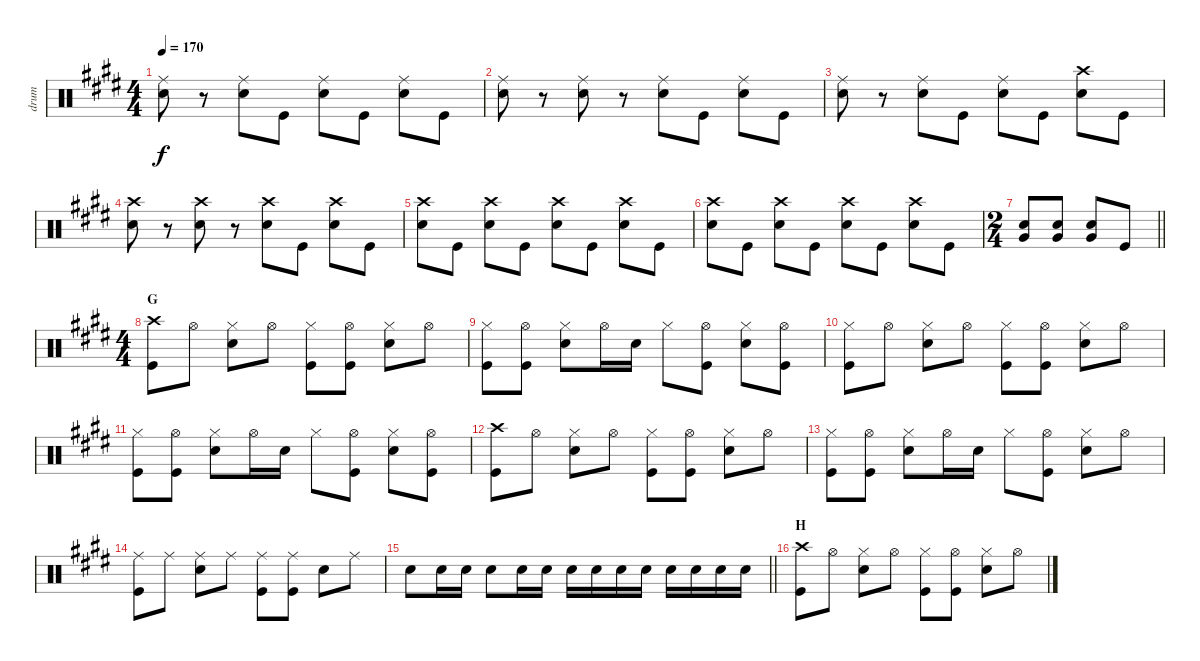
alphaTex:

\track ("drum" "drum") {instrument percussion}
\staff {score}
\articulation defaults
\ts (4 4)
\tempo 170
\clef neutral
\ks e
("Ride (middle)" "Snare (hit) 2").8{dy f} r.8 ("Ride (middle)" "Snare (hit) 2").8 "Kick (hit)".8 ("Ride (middle)" "Snare (hit) 2").8 "Kick (hit)".8 ("Ride (middle)" "Snare (hit) 2").8 "Kick (hit)".8 |
("Ride (middle)" "Snare (hit) 2").8 r.8 ("Ride (middle)" "Snare (hit) 2").8 r.8 ("Ride (middle)" "Snare (hit) 2").8 "Kick (hit)".8 ("Ride (middle)" "Snare (hit) 2").8 "Kick (hit)".8 |
("Ride (middle)" "Snare (hit) 2").8 r.8 ("Ride (middle)" "Snare (hit) 2").8 "Kick (hit)".8 ("Ride (middle)" "Snare (hit) 2").8 "Kick (hit)".8 ("Crash high (hit)" "Snare (hit) 2").8 "Kick (hit)".8 |
("Crash high (hit)" "Snare (hit) 2").8 r.8 ("Crash high (hit)" "Snare (hit) 2").8 r.8 ("Crash high (hit)" "Snare (hit) 2").8 "Kick (hit)".8 ("Crash high (hit)" "Snare (hit) 2").8 "Kick (hit)".8 |
("Crash high (hit)" "Snare (hit) 2").8 "Kick (hit)".8 ("Crash high (hit)" "Snare (hit) 2").8 "Kick (hit)".8 ("Crash high (hit)" "Snare (hit) 2").8 "Kick (hit)".8 ("Crash high (hit)" "Snare (hit) 2").8 "Kick (hit)".8 |
("Crash high (hit)" "Snare (hit) 2").8 "Kick (hit)".8 ("Crash high (hit)" "Snare (hit) 2").8 "Kick (hit)".8 ("Crash high (hit)" "Snare (hit) 2").8 "Kick (hit)".8 ("Crash high (hit)" "Snare (hit) 2").8 "Kick (hit)".8 |
\ts (2 4)
\barLineRight lightlight
("Snare (hit) 2" "Very Low Tom (hit)").8 ("Snare (hit) 2" "Very Low Tom (hit)").8 ("Snare (hit) 2" "Very Low Tom (hit)").8 "Kick (hit)".8 |
\ts (4 4)
\section ("" "G")
("Crash high (hit)" "Kick (hit)").8 "Hi-Hat (open)".8 ("Hi-Hat (closed)" "Snare (hit) 2").8 "Hi-Hat (open)".8 ("Hi-Hat (closed)" "Kick (hit)").8 ("Hi-Hat (open)" "Kick (hit)").8 ("Hi-Hat (closed)" "Snare (hit) 2").8 "Hi-Hat (open)".8 |
("Hi-Hat (closed)" "Kick (hit)").8 ("Hi-Hat (open)" "Kick (hit)").8 ("Hi-Hat (closed)" "Snare (hit) 2").8 "Hi-Hat (open)".16 "Snare (hit) 2".16 "Hi-Hat (closed)".8 ("Hi-Hat (open)" "Kick (hit)").8 ("Hi-Hat (closed)" "Snare (hit) 2").8 ("Hi-Hat (open)" "Kick (hit)").8 |
("Hi-Hat (closed)" "Kick (hit)").8 "Hi-Hat (open)".8 ("Hi-Hat (closed)" "Snare (hit) 2").8 "Hi-Hat (open)".8 ("Hi-Hat (closed)" "Kick (hit)").8 ("Hi-Hat (open)" "Kick (hit)").8 ("Hi-Hat (closed)" "Snare (hit) 2").8 "Hi-Hat (open)".8 |
("Hi-Hat (closed)" "Kick (hit)").8 ("Hi-Hat (open)" "Kick (hit)").8 ("Hi-Hat (closed)" "Snare (hit) 2").8 "Hi-Hat (open)".16 "Snare (hit) 2".16 "Hi-Hat (closed)".8 ("Hi-Hat (open)" "Kick (hit)").8 ("Hi-Hat (closed)" "Snare (hit) 2").8 ("Hi-Hat (open)" "Kick (hit)").8 |
("Crash high (hit)" "Kick (hit)").8 "Hi-Hat (open)".8 ("Hi-Hat (closed)" "Snare (hit) 2").8 "Hi-Hat (open)".8 ("Hi-Hat (closed)" "Kick (hit)").8 ("Hi-Hat (open)" "Kick (hit)").8 ("Hi-Hat (closed)" "Snare (hit) 2").8 "Hi-Hat (open)".8 |
("Hi-Hat (closed)" "Kick (hit)").8 ("Hi-Hat (open)" "Kick (hit)").8 ("Hi-Hat (closed)" "Snare (hit) 2").8 "Hi-Hat (open)".16 "Snare (hit) 2".16 "Hi-Hat (closed)".8 ("Hi-Hat (open)" "Kick (hit)").8 ("Hi-Hat (closed)" "Snare (hit) 2").8 "Hi-Hat (open)".8 |
("Ride (middle)" "Kick (hit)").8 "Ride (middle)".8 ("Ride (middle)" "Snare (hit) 2").8 "Ride (middle)".8 ("Ride (middle)" "Kick (hit)").8 ("Ride (middle)" "Kick (hit)").8 "Snare (hit) 2".8 "Ride (middle)".8 |
\barLineRight lightlight "Snare (hit) 2".8 "Snare (hit) 2".16 "Snare (hit) 2".16 "Snare (hit) 2".8 "Snare (hit) 2".16 "Snare (hit) 2".16 "Snare (hit) 2".16 "Snare (hit) 2".16 "Snare (hit) 2".16 "Snare (hit) 2".16 "Snare (hit) 2".16 "Snare (hit) 2".16 "Snare (hit) 2".16 "Snare (hit) 2".16
|
\section ("" "H")
("Crash high (hit)" "Kick (hit)").8 "Hi-Hat (open)".8 ("Hi-Hat (closed)" "Snare (hit) 2").8 "Hi-Hat (open)".8 ("Hi-Hat (closed)" "Kick (hit)").8 ("Hi-Hat (open)" "Kick (hit)").8 ("Hi-Hat (closed)" "Snare (hit) 2").8 "Hi-Hat (open)".8
